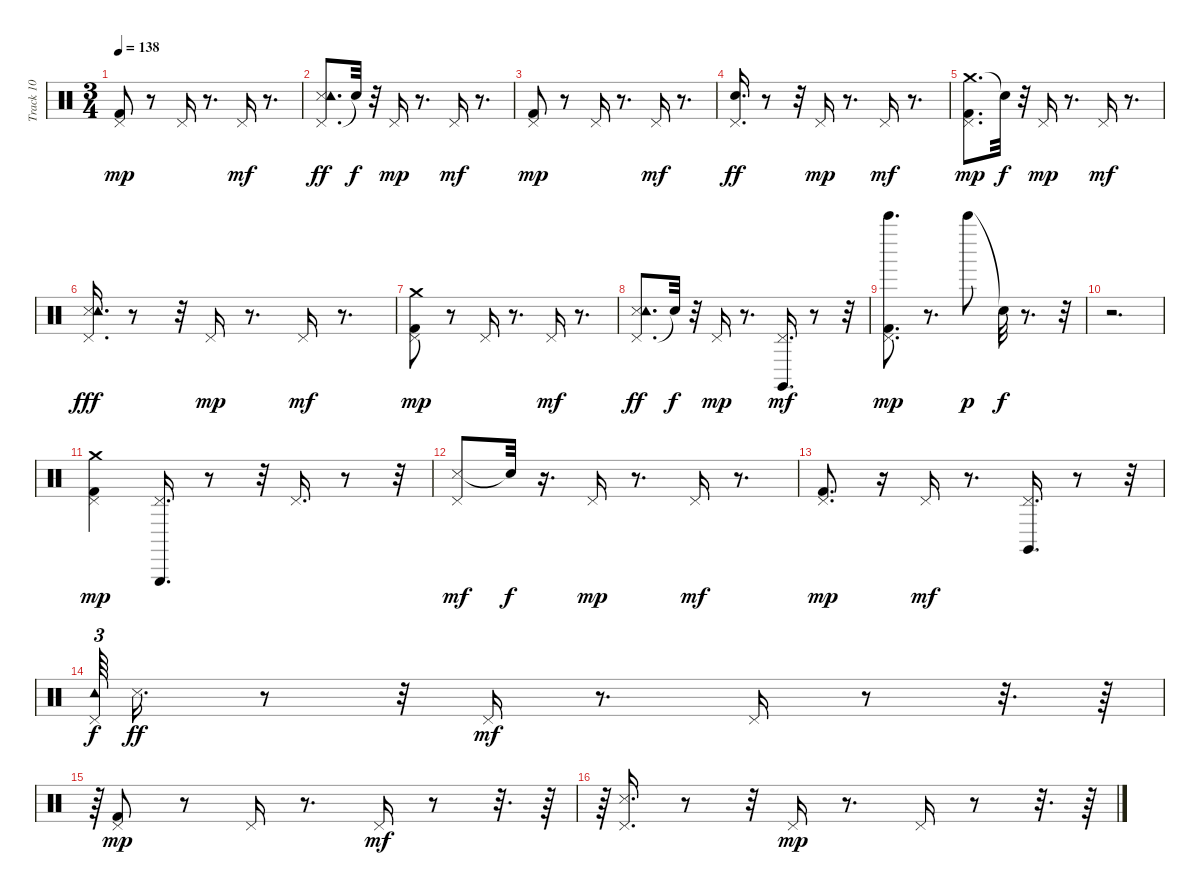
\track ("Track 10" "Track 10") {instrument percussion}
\staff {score}
\articulation defaults
\ts (3 4)
\tempo 138
\clef neutral
\ks c
("Pedal Hi-Hat (hit)" "Kick (hit) 2").8{dy mp} r.8 "Pedal Hi-Hat (hit)".16 r.8{d} "Pedal Hi-Hat (hit)".16{dy mf} r.8{d} |
("Pedal Hi-Hat (hit)" "Snare (side stick) 3" "Tambourine (hit)").8{d dy ff} "Snare (hit)"{t}.32{dy f} r.32 "Pedal Hi-Hat (hit)".16{dy mp} r.8{d} "Pedal Hi-Hat (hit)".16{dy mf} r.8{d} |
("Pedal Hi-Hat (hit)" "Kick (hit) 2").8{dy mp} r.8 "Pedal Hi-Hat (hit)".16 r.8{d} "Pedal Hi-Hat (hit)".16{dy mf} r.8{d} |
("Pedal Hi-Hat (hit)" "Electric Snare (hit)").16{d dy ff} r.8 r.32 "Pedal Hi-Hat (hit)".16{dy mp} r.8{d} "Pedal Hi-Hat (hit)".16{dy mf} r.8{d} |
("Crash medium (hit)" "Pedal Hi-Hat (hit)" "Kick (hit) 2").8{d dy mp} "Snare (hit)"{t}.32{dy f} r.32 "Pedal Hi-Hat (hit)".16{dy mp} r.8{d} "Pedal Hi-Hat (hit)".16{dy mf} r.8{d} |
("Pedal Hi-Hat (hit)" "Snare (side stick) 3" "Tambourine (hit)").16{d dy fff} r.8 r.32 "Pedal Hi-Hat (hit)".16{dy mp} r.8{d} "Pedal Hi-Hat (hit)".16{dy mf} r.8{d} |
("Pedal Hi-Hat (hit)" "Kick (hit) 2" "Crash medium (hit)").8{dy mp} r.8 "Pedal Hi-Hat (hit)".16 r.8{d} "Pedal Hi-Hat (hit)".16{dy mf} r.8{d} |
("Pedal Hi-Hat (hit)" "Snare (side stick) 3" "Tambourine (hit)").8{d dy ff} "Snare (hit)"{t}.32{dy f} r.32 "Pedal Hi-Hat (hit)".16{dy mp} r.8{d} ("Claves (hit)" "Pedal Hi-Hat (hit)").16{d dy mf} r.8 r.32 |
("Bell Tree (hit)" "Pedal Hi-Hat (hit)" "Kick (hit) 2").8{d dy mp} r.8{d} "Bell Tree (hit)".8{dy p} "Snare (hit)"{t}.32{dy f} r.8{d} r.32 |
r.2{d} |
("Crash medium (hit)" "Pedal Hi-Hat (hit)" "Kick (hit) 2").4{dy mp} ("Pedal Hi-Hat (hit)" "Triangle (hit)").16{d} r.8 r.32 "Pedal Hi-Hat (hit)".16{d} r.8 r.32 |
("Snare (side stick) 3" "Pedal Hi-Hat (hit)").8{dy mf} "Snare (hit)"{t}.32{dy f} r.16{d} "Pedal Hi-Hat (hit)".16{dy mp} r.8{d} "Pedal Hi-Hat (hit)".16{dy mf} r.8{d} |
("Pedal Hi-Hat (hit)" "Kick (hit) 2").8{d dy mp} r.16 "Pedal Hi-Hat (hit)".16{dy mf} r.8{d} ("Claves (hit)" "Pedal Hi-Hat (hit)").16{d} r.8 r.32 |
("Tambourine (hit)" "Pedal Hi-Hat (hit)").64{tu (3 2) dy f} "Snare (side stick) 3".16{d dy ff} r.8 r.32 "Pedal Hi-Hat (hit)".16{dy mf} r.8{d} "Pedal Hi-Hat (hit)".16 r.8 r.32{d} r.64 |
r.64{tu (3 2)} ("Pedal Hi-Hat (hit)" "Kick (hit) 2").8{dy mp} r.8 "Pedal Hi-Hat (hit)".16 r.8{d} "Pedal Hi-Hat (hit)".16{dy mf} r.8 r.32{d} r.64 |
r.64{tu (3 2)} ("Snare (side stick) 3" "Pedal Hi-Hat (hit)").16{d} r.8 r.32 "Pedal Hi-Hat (hit)".16{dy mp} r.8{d} "Pedal Hi-Hat (hit)".16 r.8 r.32{d} r.64
